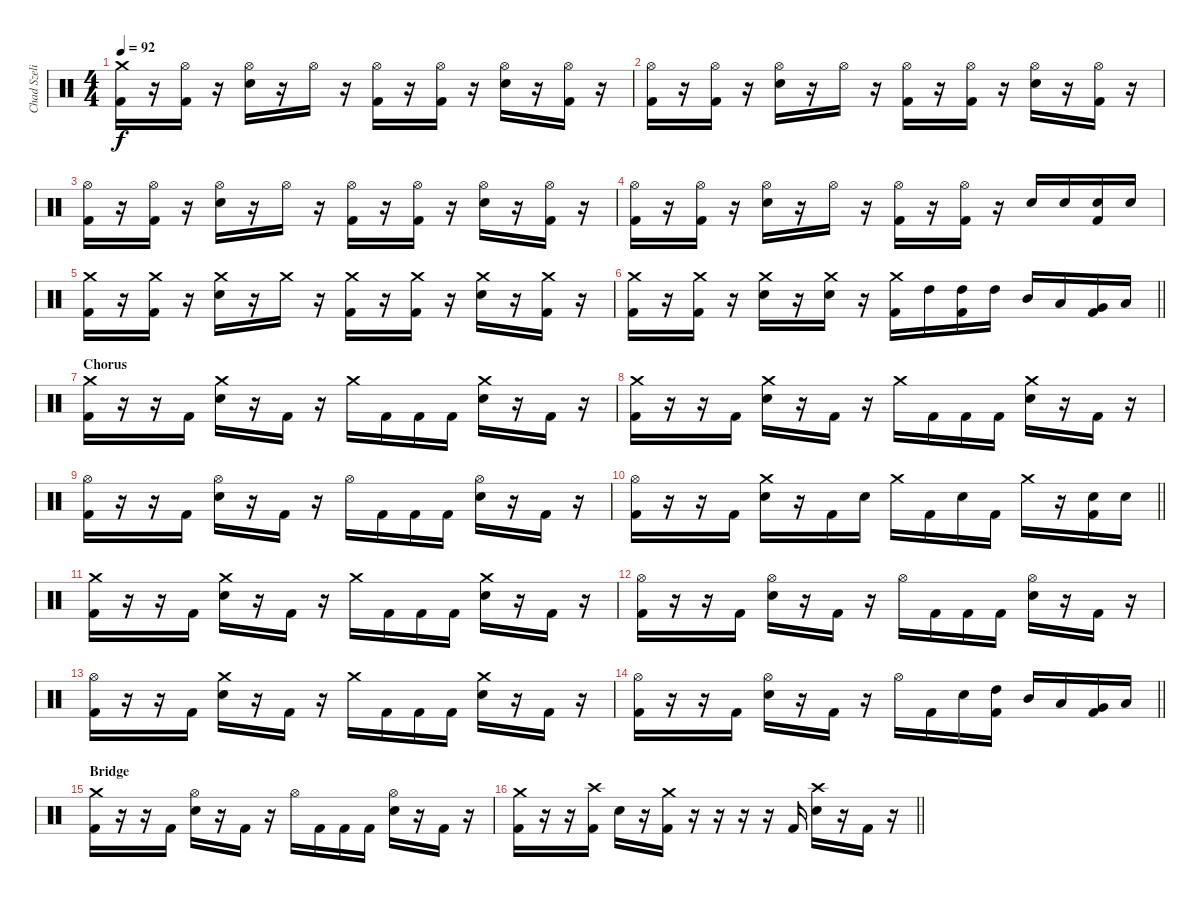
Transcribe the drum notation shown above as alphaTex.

\track ("Chad Szeliga" "Chad Szeli") {instrument percussion}
\staff {score}
\articulation defaults
\ts (4 4)
\tempo 92
\clef neutral
\ks c
("Crash medium (hit)" "Kick (hit) 2").16{dy f} r.16 ("Hi-Hat (open)" "Kick (hit) 2").16 r.16 ("Hi-Hat (open)" "Electric Snare (hit)").16 r.16 "Hi-Hat (open)".16 r.16 ("Hi-Hat (open)" "Kick (hit) 2").16 r.16 ("Hi-Hat (open)" "Kick (hit) 2").16 r.16 ("Hi-Hat (open)" "Electric Snare (hit)").16 r.16 ("Hi-Hat (open)" "Kick (hit) 2").16 r.16 |
("Hi-Hat (open)" "Kick (hit) 2").16 r.16 ("Hi-Hat (open)" "Kick (hit) 2").16 r.16 ("Hi-Hat (open)" "Electric Snare (hit)").16 r.16 "Hi-Hat (open)".16 r.16 ("Hi-Hat (open)" "Kick (hit) 2").16 r.16 ("Hi-Hat (open)" "Kick (hit) 2").16 r.16 ("Hi-Hat (open)" "Electric Snare (hit)").16 r.16 ("Hi-Hat (open)" "Kick (hit) 2").16 r.16 |
("Hi-Hat (open)" "Kick (hit) 2").16 r.16 ("Hi-Hat (open)" "Kick (hit) 2").16 r.16 ("Hi-Hat (open)" "Electric Snare (hit)").16 r.16 "Hi-Hat (open)".16 r.16 ("Hi-Hat (open)" "Kick (hit) 2").16 r.16 ("Hi-Hat (open)" "Kick (hit) 2").16 r.16 ("Hi-Hat (open)" "Electric Snare (hit)").16 r.16 ("Hi-Hat (open)" "Kick (hit) 2").16 r.16 |
("Hi-Hat (open)" "Kick (hit) 2").16 r.16 ("Hi-Hat (open)" "Kick (hit) 2").16 r.16 ("Hi-Hat (open)" "Electric Snare (hit)").16 r.16 "Hi-Hat (open)".16 r.16 ("Hi-Hat (open)" "Kick (hit) 2").16 r.16 ("Hi-Hat (open)" "Kick (hit) 2").16 r.16 "Electric Snare (hit)".16 "Electric Snare (hit)".16 ("Electric Snare (hit)" "Kick (hit) 2").16 "Electric Snare (hit)".16 |
("Crash medium (hit)" "Kick (hit) 2").16 r.16 ("Crash medium (hit)" "Kick (hit) 2").16 r.16 ("Crash medium (hit)" "Electric Snare (hit)").16 r.16 "Crash medium (hit)".16 r.16 ("Crash medium (hit)" "Kick (hit) 2").16 r.16 ("Crash medium (hit)" "Kick (hit) 2").16 r.16 ("Crash medium (hit)" "Electric Snare (hit)").16 r.16 ("Crash medium (hit)" "Kick (hit) 2").16 r.16 |
\barLineRight lightlight
("Crash medium (hit)" "Kick (hit) 2").16 r.16 ("Crash medium (hit)" "Kick (hit) 2").16 r.16 ("Crash medium (hit)" "Electric Snare (hit)").16 r.16 ("Crash medium (hit)" "Electric Snare (hit)").16 r.16 ("Crash medium (hit)" "Kick (hit) 2").16 "High Tom (hit)".16 ("High Tom (hit)" "Kick (hit) 2").16 "High Tom (hit)".16 "Mid Tom (hit)".16 "Low Tom (hit)".16 ("Very Low Tom (hit)" "Kick (hit) 2").16 "Low Floor Tom (hit)".16 |
\section ("" "Chorus")
("Crash medium (hit)" "Kick (hit) 2").16 r.16 r.16 "Kick (hit) 2".16 ("Crash medium (hit)" "Electric Snare (hit)").16 r.16 "Kick (hit) 2".16 r.16 "Crash medium (hit)".16 "Kick (hit) 2".16 "Kick (hit) 2".16 "Kick (hit) 2".16 ("Crash medium (hit)" "Electric Snare (hit)").16 r.16 "Kick (hit) 2".16 r.16 |
("Crash medium (hit)" "Kick (hit) 2").16 r.16 r.16 "Kick (hit) 2".16 ("Crash medium (hit)" "Electric Snare (hit)").16 r.16 "Kick (hit) 2".16 r.16 "Crash medium (hit)".16 "Kick (hit) 2".16 "Kick (hit) 2".16 "Kick (hit) 2".16 ("Crash medium (hit)" "Electric Snare (hit)").16 r.16 "Kick (hit) 2".16 r.16 |
("Hi-Hat (open)" "Kick (hit) 2").16 r.16 r.16 "Kick (hit) 2".16 ("Hi-Hat (open)" "Electric Snare (hit)").16 r.16 "Kick (hit) 2".16 r.16 "Hi-Hat (open)".16 "Kick (hit) 2".16 "Kick (hit) 2".16 "Kick (hit) 2".16 ("Hi-Hat (open)" "Electric Snare (hit)").16 r.16 "Kick (hit) 2".16 r.16 |
\barLineRight lightlight
("Hi-Hat (open)" "Kick (hit) 2").16 r.16 r.16 "Kick (hit) 2".16 ("Crash medium (hit)" "Electric Snare (hit)").16 r.16 "Kick (hit) 2".16 "Electric Snare (hit)".16 "Crash medium (hit)".16 "Kick (hit) 2".16 "Electric Snare (hit)".16 "Kick (hit) 2".16 "Crash medium (hit)".16 r.16 ("Electric Snare (hit)" "Kick (hit) 2").16 "Electric Snare (hit)".16 |
("Crash medium (hit)" "Kick (hit) 2").16 r.16 r.16 "Kick (hit) 2".16 ("Crash medium (hit)" "Electric Snare (hit)").16 r.16 "Kick (hit) 2".16 r.16 "Crash medium (hit)".16 "Kick (hit) 2".16 "Kick (hit) 2".16 "Kick (hit) 2".16 ("Crash medium (hit)" "Electric Snare (hit)").16 r.16 "Kick (hit) 2".16 r.16 |
("Hi-Hat (open)" "Kick (hit) 2").16 r.16 r.16 "Kick (hit) 2".16 ("Hi-Hat (open)" "Electric Snare (hit)").16 r.16 "Kick (hit) 2".16 r.16 "Hi-Hat (open)".16 "Kick (hit) 2".16 "Kick (hit) 2".16 "Kick (hit) 2".16 ("Hi-Hat (open)" "Electric Snare (hit)").16 r.16 "Kick (hit) 2".16 r.16 |
("Hi-Hat (open)" "Kick (hit) 2").16 r.16 r.16 "Kick (hit) 2".16 ("Crash medium (hit)" "Electric Snare (hit)").16 r.16 "Kick (hit) 2".16 r.16 "Crash medium (hit)".16 "Kick (hit) 2".16 "Kick (hit) 2".16 "Kick (hit) 2".16 ("Crash medium (hit)" "Electric Snare (hit)").16 r.16 "Kick (hit) 2".16 r.16 |
\barLineRight lightlight
("Hi-Hat (open)" "Kick (hit) 2").16 r.16 r.16 "Kick (hit) 2".16 ("Hi-Hat (open)" "Electric Snare (hit)").16 r.16 "Kick (hit) 2".16 r.16 "Hi-Hat (open)".16 "Kick (hit) 2".16 "Electric Snare (hit)".16 ("High Tom (hit)" "Kick (hit) 2").16 "Mid Tom (hit)".16 "Low Tom (hit)".16 ("Very Low Tom (hit)" "Kick (hit) 2").16 "Low Floor Tom (hit)".16 |
\section ("" "Bridge")
("Crash medium (hit)" "Kick (hit) 2").16 r.16 r.16 "Kick (hit) 2".16 ("Hi-Hat (open)" "Electric Snare (hit)").16 r.16 "Kick (hit) 2".16 r.16 "Hi-Hat (open)".16 "Kick (hit) 2".16 "Kick (hit) 2".16 "Kick (hit) 2".16 ("Hi-Hat (open)" "Electric Snare (hit)").16 r.16 "Kick (hit) 2".16 r.16 |
\barLineRight lightlight
("Crash medium (hit)" "Kick (hit) 2").16 r.16 r.16 ("Crash high (hit)" "Kick (hit) 2").16 "Electric Snare (hit)".16 r.16 ("Crash medium (hit)" "Kick (hit) 2").16 r.16 r.16 r.16 r.16 "Kick (hit) 2".16 ("Crash high (hit)" "Electric Snare (hit)").16 r.16 "Kick (hit) 2".16 r.16
